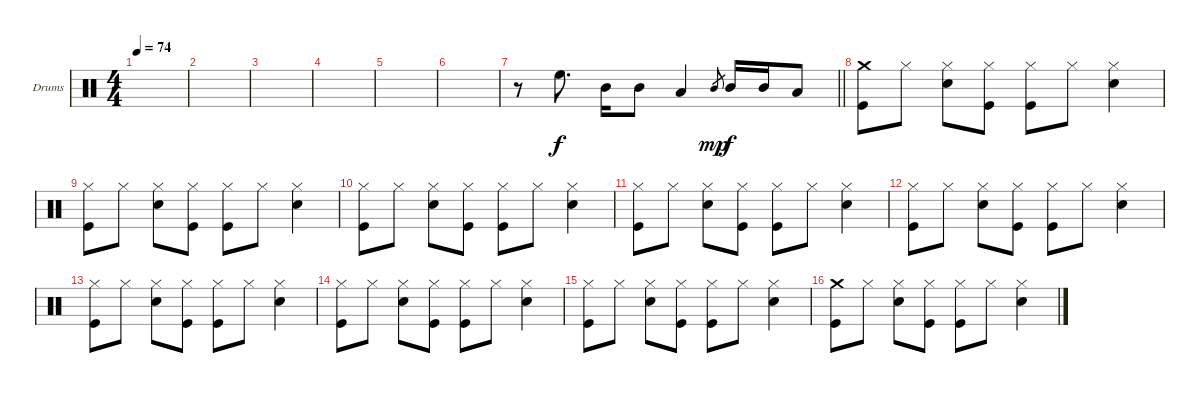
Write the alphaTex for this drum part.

\bracketExtendMode groupsimilarinstruments
\firstSystemTrackNameOrientation horizontal
\otherSystemsTrackNameOrientation horizontal
\track ("Drumkit" "Drums") {instrument percussion}
\staff {score}
\articulation defaults
\ts (4 4)
\tempo 74
\clef neutral
\ks c
|
|
|
|
|
|
\barLineRight lightlight
r.8 "High Floor Tom (hit)".8{d} "Mid Tom (hit)".16 "Mid Tom (hit)".8 "Low Tom (hit)".4 "Mid Tom (hit)".8{gr dy mp} "Mid Tom (hit)".16{dy f} "Mid Tom (hit)".16 "Low Tom (hit)".8 |
("Kick (hit)" "Crash medium (hit)").8 "Hi-Hat (closed)".8 ("Snare (hit) 2" "Hi-Hat (closed)").8 ("Kick (hit)" "Hi-Hat (closed)").8 ("Kick (hit)" "Hi-Hat (closed)").8 "Hi-Hat (closed)".8 ("Snare (hit) 2" "Hi-Hat (closed)").4 |
("Kick (hit)" "Hi-Hat (closed)").8 "Hi-Hat (closed)".8 ("Snare (hit) 2" "Hi-Hat (closed)").8 ("Kick (hit)" "Hi-Hat (closed)").8 ("Kick (hit)" "Hi-Hat (closed)").8 "Hi-Hat (closed)".8 ("Snare (hit) 2" "Hi-Hat (closed)").4 |
("Kick (hit)" "Hi-Hat (closed)").8 "Hi-Hat (closed)".8 ("Snare (hit) 2" "Hi-Hat (closed)").8 ("Kick (hit)" "Hi-Hat (closed)").8 ("Kick (hit)" "Hi-Hat (closed)").8 "Hi-Hat (closed)".8 ("Snare (hit) 2" "Hi-Hat (closed)").4 |
("Kick (hit)" "Hi-Hat (closed)").8 "Hi-Hat (closed)".8 ("Snare (hit) 2" "Hi-Hat (closed)").8 ("Kick (hit)" "Hi-Hat (closed)").8 ("Kick (hit)" "Hi-Hat (closed)").8 "Hi-Hat (closed)".8 ("Snare (hit) 2" "Hi-Hat (closed)").4 |
("Kick (hit)" "Hi-Hat (closed)").8 "Hi-Hat (closed)".8 ("Snare (hit) 2" "Hi-Hat (closed)").8 ("Kick (hit)" "Hi-Hat (closed)").8 ("Kick (hit)" "Hi-Hat (closed)").8 "Hi-Hat (closed)".8 ("Snare (hit) 2" "Hi-Hat (closed)").4 |
("Kick (hit)" "Hi-Hat (closed)").8 "Hi-Hat (closed)".8 ("Snare (hit) 2" "Hi-Hat (closed)").8 ("Kick (hit)" "Hi-Hat (closed)").8 ("Kick (hit)" "Hi-Hat (closed)").8 "Hi-Hat (closed)".8 ("Snare (hit) 2" "Hi-Hat (closed)").4 |
("Kick (hit)" "Hi-Hat (closed)").8 "Hi-Hat (closed)".8 ("Snare (hit) 2" "Hi-Hat (closed)").8 ("Kick (hit)" "Hi-Hat (closed)").8 ("Kick (hit)" "Hi-Hat (closed)").8 "Hi-Hat (closed)".8 ("Snare (hit) 2" "Hi-Hat (closed)").4 |
("Kick (hit)" "Hi-Hat (closed)").8 "Hi-Hat (closed)".8 ("Snare (hit) 2" "Hi-Hat (closed)").8 ("Kick (hit)" "Hi-Hat (closed)").8 ("Kick (hit)" "Hi-Hat (closed)").8 "Hi-Hat (closed)".8 ("Snare (hit) 2" "Hi-Hat (closed)").4 |
("Kick (hit)" "Crash medium (hit)").8 "Hi-Hat (closed)".8 ("Snare (hit) 2" "Hi-Hat (closed)").8 ("Kick (hit)" "Hi-Hat (closed)").8 ("Kick (hit)" "Hi-Hat (closed)").8 "Hi-Hat (closed)".8 ("Snare (hit) 2" "Hi-Hat (closed)").4
